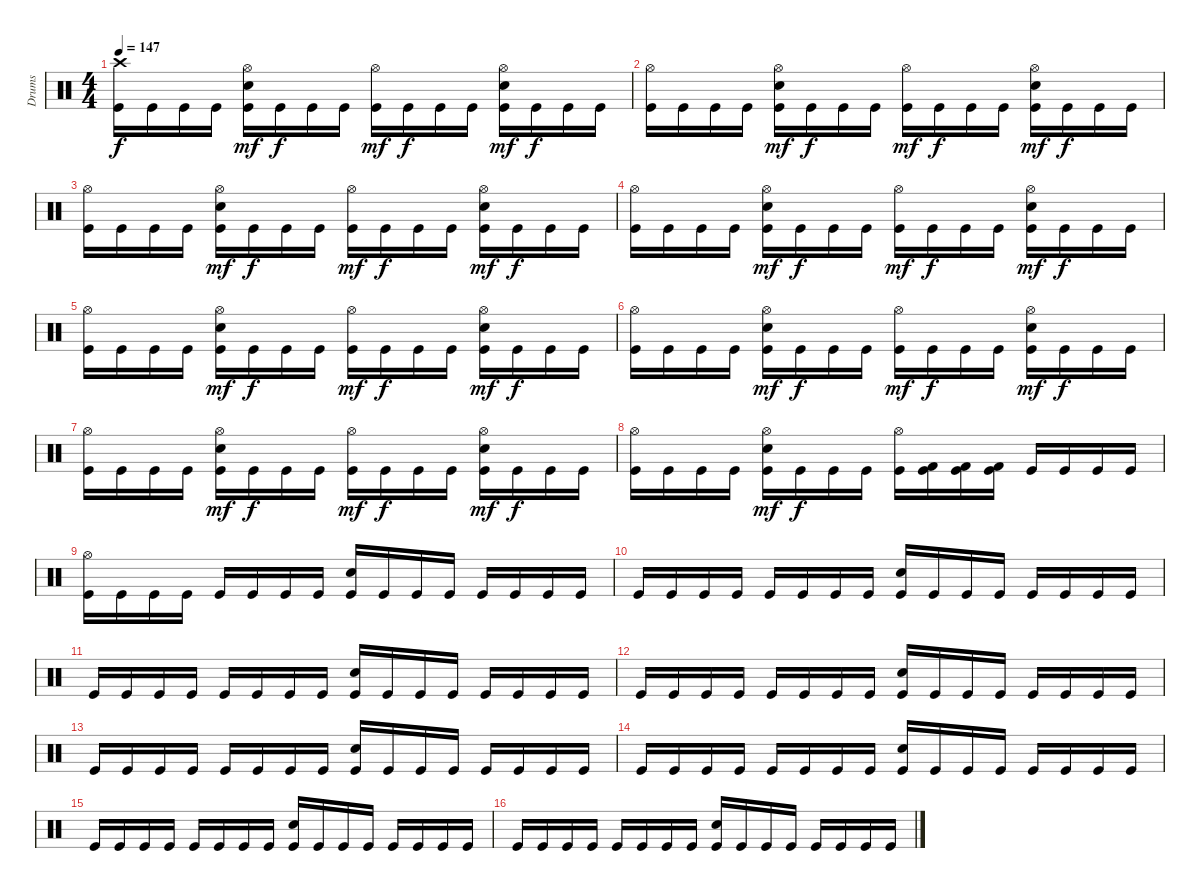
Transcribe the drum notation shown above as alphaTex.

\track ("Drums" "Drums") {instrument percussion}
\staff {score}
\articulation defaults
\ts (4 4)
\tempo 147
\clef neutral
\ks c
("Crash high (hit)" "Kick (hit)").16{dy f} "Kick (hit)".16 "Kick (hit)".16 "Kick (hit)".16 ("Snare (hit) 2" "Hi-Hat (open)" "Kick (hit)").16{dy mf} "Kick (hit)".16{dy f} "Kick (hit)".16 "Kick (hit)".16 ("Hi-Hat (open)" "Kick (hit)").16{dy mf} "Kick (hit)".16{dy f} "Kick (hit)".16 "Kick (hit)".16 ("Snare (hit) 2" "Hi-Hat (open)" "Kick (hit)").16{dy mf} "Kick (hit)".16{dy f} "Kick (hit)".16 "Kick (hit)".16 |
("Hi-Hat (open)" "Kick (hit)").16 "Kick (hit)".16 "Kick (hit)".16 "Kick (hit)".16 ("Snare (hit) 2" "Hi-Hat (open)" "Kick (hit)").16{dy mf} "Kick (hit)".16{dy f} "Kick (hit)".16 "Kick (hit)".16 ("Hi-Hat (open)" "Kick (hit)").16{dy mf} "Kick (hit)".16{dy f} "Kick (hit)".16 "Kick (hit)".16 ("Snare (hit) 2" "Hi-Hat (open)" "Kick (hit)").16{dy mf} "Kick (hit)".16{dy f} "Kick (hit)".16 "Kick (hit)".16 |
("Hi-Hat (open)" "Kick (hit)").16 "Kick (hit)".16 "Kick (hit)".16 "Kick (hit)".16 ("Snare (hit) 2" "Hi-Hat (open)" "Kick (hit)").16{dy mf} "Kick (hit)".16{dy f} "Kick (hit)".16 "Kick (hit)".16 ("Hi-Hat (open)" "Kick (hit)").16{dy mf} "Kick (hit)".16{dy f} "Kick (hit)".16 "Kick (hit)".16 ("Snare (hit) 2" "Hi-Hat (open)" "Kick (hit)").16{dy mf} "Kick (hit)".16{dy f} "Kick (hit)".16 "Kick (hit)".16 |
("Hi-Hat (open)" "Kick (hit)").16 "Kick (hit)".16 "Kick (hit)".16 "Kick (hit)".16 ("Snare (hit) 2" "Hi-Hat (open)" "Kick (hit)").16{dy mf} "Kick (hit)".16{dy f} "Kick (hit)".16 "Kick (hit)".16 ("Hi-Hat (open)" "Kick (hit)").16{dy mf} "Kick (hit)".16{dy f} "Kick (hit)".16 "Kick (hit)".16 ("Snare (hit) 2" "Hi-Hat (open)" "Kick (hit)").16{dy mf} "Kick (hit)".16{dy f} "Kick (hit)".16 "Kick (hit)".16 |
("Hi-Hat (open)" "Kick (hit)").16 "Kick (hit)".16 "Kick (hit)".16 "Kick (hit)".16 ("Snare (hit) 2" "Hi-Hat (open)" "Kick (hit)").16{dy mf} "Kick (hit)".16{dy f} "Kick (hit)".16 "Kick (hit)".16 ("Hi-Hat (open)" "Kick (hit)").16{dy mf} "Kick (hit)".16{dy f} "Kick (hit)".16 "Kick (hit)".16 ("Snare (hit) 2" "Hi-Hat (open)" "Kick (hit)").16{dy mf} "Kick (hit)".16{dy f} "Kick (hit)".16 "Kick (hit)".16 |
("Hi-Hat (open)" "Kick (hit)").16 "Kick (hit)".16 "Kick (hit)".16 "Kick (hit)".16 ("Snare (hit) 2" "Hi-Hat (open)" "Kick (hit)").16{dy mf} "Kick (hit)".16{dy f} "Kick (hit)".16 "Kick (hit)".16 ("Hi-Hat (open)" "Kick (hit)").16{dy mf} "Kick (hit)".16{dy f} "Kick (hit)".16 "Kick (hit)".16 ("Snare (hit) 2" "Hi-Hat (open)" "Kick (hit)").16{dy mf} "Kick (hit)".16{dy f} "Kick (hit)".16 "Kick (hit)".16 |
("Hi-Hat (open)" "Kick (hit)").16 "Kick (hit)".16 "Kick (hit)".16 "Kick (hit)".16 ("Snare (hit) 2" "Hi-Hat (open)" "Kick (hit)").16{dy mf} "Kick (hit)".16{dy f} "Kick (hit)".16 "Kick (hit)".16 ("Hi-Hat (open)" "Kick (hit)").16{dy mf} "Kick (hit)".16{dy f} "Kick (hit)".16 "Kick (hit)".16 ("Snare (hit) 2" "Hi-Hat (open)" "Kick (hit)").16{dy mf} "Kick (hit)".16{dy f} "Kick (hit)".16 "Kick (hit)".16 |
("Hi-Hat (open)" "Kick (hit)").16 "Kick (hit)".16 "Kick (hit)".16 "Kick (hit)".16 ("Snare (hit) 2" "Hi-Hat (open)" "Kick (hit)").16{dy mf} "Kick (hit)".16{dy f} "Kick (hit)".16 "Kick (hit)".16 ("Hi-Hat (open)" "Kick (hit)").16 ("Kick (hit) 2" "Kick (hit)").16 ("Kick (hit) 2" "Kick (hit)").16 ("Kick (hit) 2" "Kick (hit)").16 "Kick (hit)".16 "Kick (hit)".16 "Kick (hit)".16 "Kick (hit)".16 |
("Hi-Hat (open)" "Kick (hit)").16 "Kick (hit)".16 "Kick (hit)".16 "Kick (hit)".16 "Kick (hit)".16 "Kick (hit)".16 "Kick (hit)".16 "Kick (hit)".16 ("Snare (hit) 2" "Kick (hit)").16 "Kick (hit)".16 "Kick (hit)".16 "Kick (hit)".16 "Kick (hit)".16 "Kick (hit)".16 "Kick (hit)".16 "Kick (hit)".16 |
"Kick (hit)".16 "Kick (hit)".16 "Kick (hit)".16 "Kick (hit)".16 "Kick (hit)".16 "Kick (hit)".16 "Kick (hit)".16 "Kick (hit)".16 ("Snare (hit) 2" "Kick (hit)").16 "Kick (hit)".16 "Kick (hit)".16 "Kick (hit)".16 "Kick (hit)".16 "Kick (hit)".16 "Kick (hit)".16 "Kick (hit)".16 |
"Kick (hit)".16 "Kick (hit)".16 "Kick (hit)".16 "Kick (hit)".16 "Kick (hit)".16 "Kick (hit)".16 "Kick (hit)".16 "Kick (hit)".16 ("Snare (hit) 2" "Kick (hit)").16 "Kick (hit)".16 "Kick (hit)".16 "Kick (hit)".16 "Kick (hit)".16 "Kick (hit)".16 "Kick (hit)".16 "Kick (hit)".16 |
"Kick (hit)".16 "Kick (hit)".16 "Kick (hit)".16 "Kick (hit)".16 "Kick (hit)".16 "Kick (hit)".16 "Kick (hit)".16 "Kick (hit)".16 ("Snare (hit) 2" "Kick (hit)").16 "Kick (hit)".16 "Kick (hit)".16 "Kick (hit)".16 "Kick (hit)".16 "Kick (hit)".16 "Kick (hit)".16 "Kick (hit)".16 |
"Kick (hit)".16 "Kick (hit)".16 "Kick (hit)".16 "Kick (hit)".16 "Kick (hit)".16 "Kick (hit)".16 "Kick (hit)".16 "Kick (hit)".16 ("Snare (hit) 2" "Kick (hit)").16 "Kick (hit)".16 "Kick (hit)".16 "Kick (hit)".16 "Kick (hit)".16 "Kick (hit)".16 "Kick (hit)".16 "Kick (hit)".16 |
"Kick (hit)".16 "Kick (hit)".16 "Kick (hit)".16 "Kick (hit)".16 "Kick (hit)".16 "Kick (hit)".16 "Kick (hit)".16 "Kick (hit)".16 ("Snare (hit) 2" "Kick (hit)").16 "Kick (hit)".16 "Kick (hit)".16 "Kick (hit)".16 "Kick (hit)".16 "Kick (hit)".16 "Kick (hit)".16 "Kick (hit)".16 |
"Kick (hit)".16 "Kick (hit)".16 "Kick (hit)".16 "Kick (hit)".16 "Kick (hit)".16 "Kick (hit)".16 "Kick (hit)".16 "Kick (hit)".16 ("Snare (hit) 2" "Kick (hit)").16 "Kick (hit)".16 "Kick (hit)".16 "Kick (hit)".16 "Kick (hit)".16 "Kick (hit)".16 "Kick (hit)".16 "Kick (hit)".16 |
"Kick (hit)".16 "Kick (hit)".16 "Kick (hit)".16 "Kick (hit)".16 "Kick (hit)".16 "Kick (hit)".16 "Kick (hit)".16 "Kick (hit)".16 ("Snare (hit) 2" "Kick (hit)").16 "Kick (hit)".16 "Kick (hit)".16 "Kick (hit)".16 "Kick (hit)".16 "Kick (hit)".16 "Kick (hit)".16 "Kick (hit)".16
